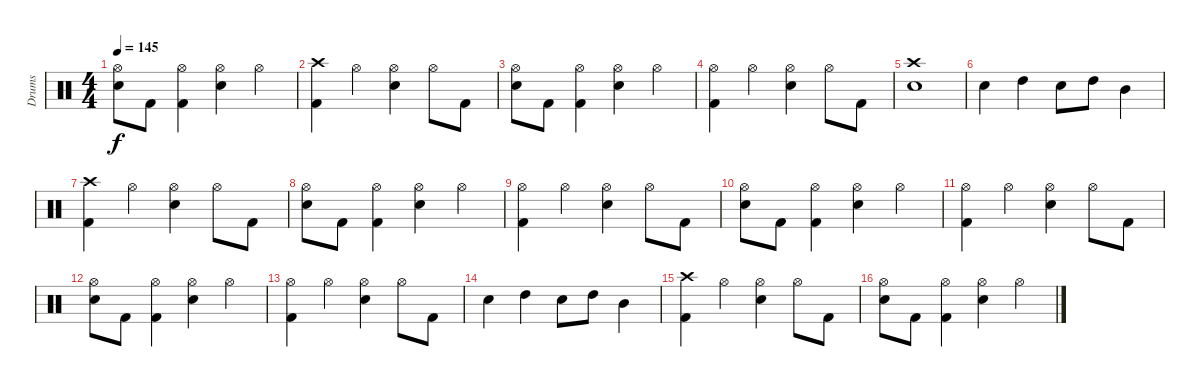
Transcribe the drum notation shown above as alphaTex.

\track ("Drums" "Drums") {instrument percussion}
\staff {score}
\articulation defaults
\ts (4 4)
\tempo 145
\clef neutral
\ks c
("Hi-Hat (open)" "Snare (hit) 2").8{dy f} "Kick (hit) 2".8 ("Hi-Hat (open)" "Kick (hit) 2").4 ("Hi-Hat (open)" "Snare (hit) 2").4 "Hi-Hat (open)".4 |
("Crash high (hit)" "Kick (hit) 2").4 "Hi-Hat (open)".4 ("Hi-Hat (open)" "Snare (hit) 2").4 "Hi-Hat (open)".8 "Kick (hit) 2".8 |
("Hi-Hat (open)" "Snare (hit) 2").8 "Kick (hit) 2".8 ("Hi-Hat (open)" "Kick (hit) 2").4 ("Hi-Hat (open)" "Snare (hit) 2").4 "Hi-Hat (open)".4 |
("Hi-Hat (open)" "Kick (hit) 2").4 "Hi-Hat (open)".4 ("Hi-Hat (open)" "Snare (hit) 2").4 "Hi-Hat (open)".8 "Kick (hit) 2".8 |
("Crash high (hit)" "Snare (hit) 2").1 |
"Snare (hit) 2".4 "High Tom (hit)".4 "Snare (hit) 2".8 "High Tom (hit)".8 "Mid Tom (hit)".4 |
("Crash high (hit)" "Kick (hit) 2").4 "Hi-Hat (open)".4 ("Hi-Hat (open)" "Snare (hit) 2").4 "Hi-Hat (open)".8 "Kick (hit) 2".8 |
("Hi-Hat (open)" "Snare (hit) 2").8 "Kick (hit) 2".8 ("Hi-Hat (open)" "Kick (hit) 2").4 ("Hi-Hat (open)" "Snare (hit) 2").4 "Hi-Hat (open)".4 |
("Hi-Hat (open)" "Kick (hit) 2").4 "Hi-Hat (open)".4 ("Hi-Hat (open)" "Snare (hit) 2").4 "Hi-Hat (open)".8 "Kick (hit) 2".8 |
("Hi-Hat (open)" "Snare (hit) 2").8 "Kick (hit) 2".8 ("Hi-Hat (open)" "Kick (hit) 2").4 ("Hi-Hat (open)" "Snare (hit) 2").4 "Hi-Hat (open)".4 |
("Hi-Hat (open)" "Kick (hit) 2").4 "Hi-Hat (open)".4 ("Hi-Hat (open)" "Snare (hit) 2").4 "Hi-Hat (open)".8 "Kick (hit) 2".8 |
("Hi-Hat (open)" "Snare (hit) 2").8 "Kick (hit) 2".8 ("Hi-Hat (open)" "Kick (hit) 2").4 ("Hi-Hat (open)" "Snare (hit) 2").4 "Hi-Hat (open)".4 |
("Hi-Hat (open)" "Kick (hit) 2").4 "Hi-Hat (open)".4 ("Hi-Hat (open)" "Snare (hit) 2").4 "Hi-Hat (open)".8 "Kick (hit) 2".8 |
"Snare (hit) 2".4 "High Tom (hit)".4 "Snare (hit) 2".8 "High Tom (hit)".8 "Mid Tom (hit)".4 |
("Crash high (hit)" "Kick (hit) 2").4 "Hi-Hat (open)".4 ("Hi-Hat (open)" "Snare (hit) 2").4 "Hi-Hat (open)".8 "Kick (hit) 2".8 |
("Hi-Hat (open)" "Snare (hit) 2").8 "Kick (hit) 2".8 ("Hi-Hat (open)" "Kick (hit) 2").4 ("Hi-Hat (open)" "Snare (hit) 2").4 "Hi-Hat (open)".4
